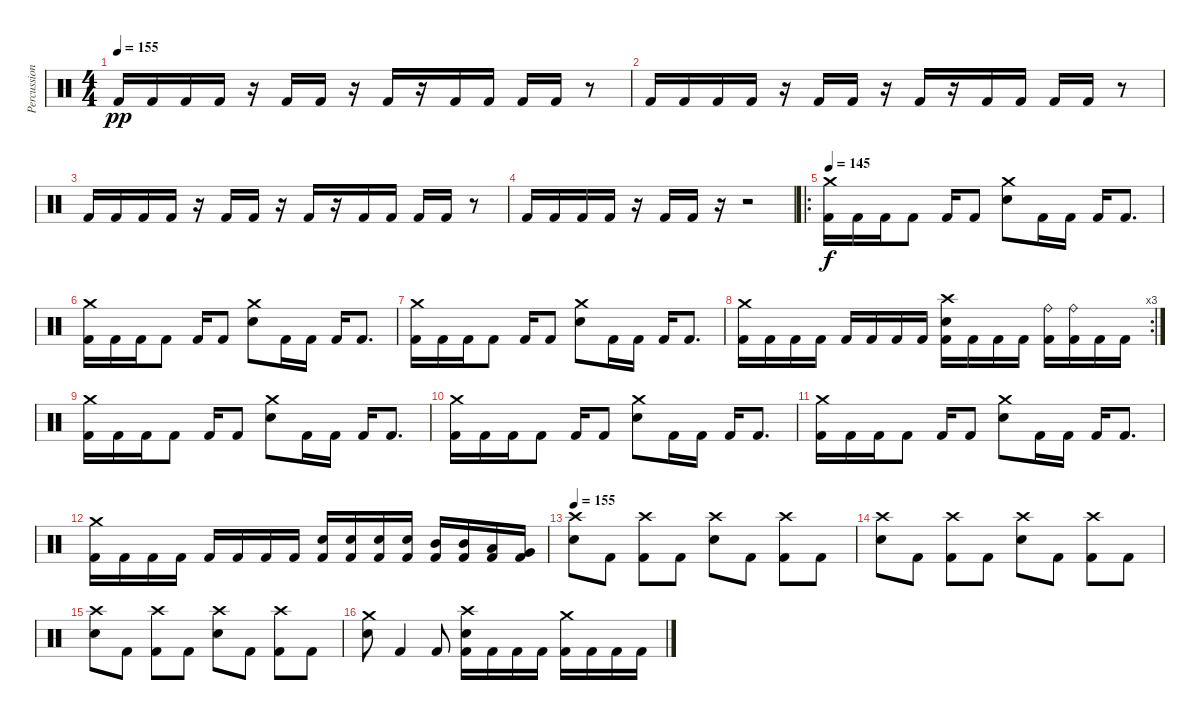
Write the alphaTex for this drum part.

\track ("Percussion" "Percussion") {instrument percussion}
\staff {score}
\articulation defaults
\ts (4 4)
\tempo 155
\clef neutral
\ks c "Kick (hit) 2".16{dy pp} "Kick (hit) 2".16 "Kick (hit) 2".16 "Kick (hit) 2".16
r.16 "Kick (hit) 2".16 "Kick (hit) 2".16 r.16 "Kick (hit) 2".16 r.16 "Kick (hit) 2".16 "Kick (hit) 2".16 "Kick (hit) 2".16 "Kick (hit) 2".16 r.8 |
"Kick (hit) 2".16 "Kick (hit) 2".16 "Kick (hit) 2".16 "Kick (hit) 2".16 r.16 "Kick (hit) 2".16 "Kick (hit) 2".16 r.16 "Kick (hit) 2".16 r.16 "Kick (hit) 2".16 "Kick (hit) 2".16 "Kick (hit) 2".16 "Kick (hit) 2".16 r.8 |
"Kick (hit) 2".16 "Kick (hit) 2".16 "Kick (hit) 2".16 "Kick (hit) 2".16 r.16 "Kick (hit) 2".16 "Kick (hit) 2".16 r.16 "Kick (hit) 2".16 r.16 "Kick (hit) 2".16 "Kick (hit) 2".16 "Kick (hit) 2".16 "Kick (hit) 2".16 r.8 |
"Kick (hit) 2".16 "Kick (hit) 2".16 "Kick (hit) 2".16 "Kick (hit) 2".16 r.16 "Kick (hit) 2".16 "Kick (hit) 2".16 r.16 r.2 |
\ro
\tempo 145
("Crash medium (hit)" "Kick (hit) 2").16{dy f} "Kick (hit) 2".16 "Kick (hit) 2".16 "Kick (hit) 2".8 "Kick (hit) 2".16 "Kick (hit) 2".8 ("Crash medium (hit)" "Snare (hit) 2").8 "Kick (hit) 2".16 "Kick (hit) 2".16 "Kick (hit) 2".16 "Kick (hit) 2".8{d} |
("Crash medium (hit)" "Kick (hit) 2").16 "Kick (hit) 2".16 "Kick (hit) 2".16 "Kick (hit) 2".8 "Kick (hit) 2".16 "Kick (hit) 2".8 ("Crash medium (hit)" "Snare (hit) 2").8 "Kick (hit) 2".16 "Kick (hit) 2".16 "Kick (hit) 2".16 "Kick (hit) 2".8{d} |
("Crash medium (hit)" "Kick (hit) 2").16 "Kick (hit) 2".16 "Kick (hit) 2".16 "Kick (hit) 2".8 "Kick (hit) 2".16 "Kick (hit) 2".8 ("Crash medium (hit)" "Snare (hit) 2").8 "Kick (hit) 2".16 "Kick (hit) 2".16 "Kick (hit) 2".16 "Kick (hit) 2".8{d} |
\rc 3
("Crash medium (hit)" "Kick (hit) 2").16 "Kick (hit) 2".16 "Kick (hit) 2".16 "Kick (hit) 2".16 "Kick (hit) 2".16 "Kick (hit) 2".16 "Kick (hit) 2".16 "Kick (hit) 2".16 ("Crash high (hit)" "Snare (hit) 2" "Kick (hit) 2").16 "Kick (hit) 2".16 "Kick (hit) 2".16 "Kick (hit) 2".16 ("Ride (bell)" "Kick (hit) 2").16 ("Ride (bell)" "Kick (hit) 2").16 "Kick (hit) 2".16 "Kick (hit) 2".16 |
("Crash medium (hit)" "Kick (hit) 2").16 "Kick (hit) 2".16 "Kick (hit) 2".16 "Kick (hit) 2".8 "Kick (hit) 2".16 "Kick (hit) 2".8 ("Crash medium (hit)" "Snare (hit) 2").8 "Kick (hit) 2".16 "Kick (hit) 2".16 "Kick (hit) 2".16 "Kick (hit) 2".8{d} |
("Crash medium (hit)" "Kick (hit) 2").16 "Kick (hit) 2".16 "Kick (hit) 2".16 "Kick (hit) 2".8 "Kick (hit) 2".16 "Kick (hit) 2".8 ("Crash medium (hit)" "Snare (hit) 2").8 "Kick (hit) 2".16 "Kick (hit) 2".16 "Kick (hit) 2".16 "Kick (hit) 2".8{d} |
("Crash medium (hit)" "Kick (hit) 2").16 "Kick (hit) 2".16 "Kick (hit) 2".16 "Kick (hit) 2".8 "Kick (hit) 2".16 "Kick (hit) 2".8 ("Crash medium (hit)" "Snare (hit) 2").8 "Kick (hit) 2".16 "Kick (hit) 2".16 "Kick (hit) 2".16 "Kick (hit) 2".8{d} |
("Crash medium (hit)" "Kick (hit) 2").16 "Kick (hit) 2".16 "Kick (hit) 2".16 "Kick (hit) 2".16 "Kick (hit) 2".16 "Kick (hit) 2".16 "Kick (hit) 2".16 "Kick (hit) 2".16 ("Snare (hit) 2" "Kick (hit) 2").16 ("Snare (hit) 2" "Kick (hit) 2").16 ("Snare (hit) 2" "Kick (hit) 2").16 ("Snare (hit) 2" "Kick (hit) 2").16 ("Mid Tom (hit)" "Kick (hit) 2").16 ("Mid Tom (hit)" "Kick (hit) 2").16 ("Low Tom (hit)" "Kick (hit) 2").16 ("Very Low Tom (hit)" "Kick (hit) 2").16 |
\tempo 155
("Crash high (hit)" "Snare (hit) 2").8 "Kick (hit) 2".8 ("Crash high (hit)" "Kick (hit) 2").8 "Kick (hit) 2".8 ("Crash high (hit)" "Snare (hit) 2").8 "Kick (hit) 2".8 ("Crash high (hit)" "Kick (hit) 2").8 "Kick (hit) 2".8 |
("Crash high (hit)" "Snare (hit) 2").8 "Kick (hit) 2".8 ("Crash high (hit)" "Kick (hit) 2").8 "Kick (hit) 2".8 ("Crash high (hit)" "Snare (hit) 2").8 "Kick (hit) 2".8 ("Crash high (hit)" "Kick (hit) 2").8 "Kick (hit) 2".8 |
("Crash high (hit)" "Snare (hit) 2").8 "Kick (hit) 2".8 ("Crash high (hit)" "Kick (hit) 2").8 "Kick (hit) 2".8 ("Crash high (hit)" "Snare (hit) 2").8 "Kick (hit) 2".8 ("Crash high (hit)" "Kick (hit) 2").8 "Kick (hit) 2".8 |
("Crash medium (hit)" "Snare (hit) 2").8 "Kick (hit) 2".4 "Kick (hit) 2".8 ("Crash high (hit)" "Snare (hit) 2" "Kick (hit) 2").16 "Kick (hit) 2".16 "Kick (hit) 2".16 "Kick (hit) 2".16 ("Crash medium (hit)" "Kick (hit) 2").16 "Kick (hit) 2".16 "Kick (hit) 2".16 "Kick (hit) 2".16
